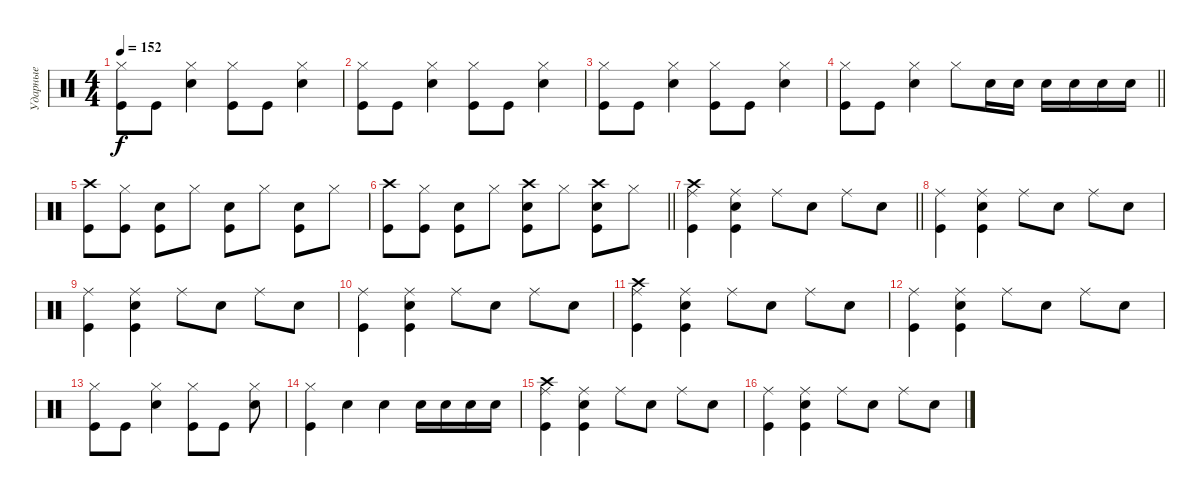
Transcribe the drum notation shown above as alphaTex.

\track ("Ударные" "Ударные") {instrument percussion}
\staff {score}
\articulation defaults
\ts (4 4)
\tempo 152
\clef neutral
\ks c
("Hi-Hat (closed)" "Kick (hit)").8{dy f} "Kick (hit)".8 ("Snare (hit) 2" "Hi-Hat (closed)").4 ("Hi-Hat (closed)" "Kick (hit)").8 "Kick (hit)".8 ("Snare (hit) 2" "Hi-Hat (closed)").4 |
("Hi-Hat (closed)" "Kick (hit)").8 "Kick (hit)".8 ("Snare (hit) 2" "Hi-Hat (closed)").4 ("Hi-Hat (closed)" "Kick (hit)").8 "Kick (hit)".8 ("Snare (hit) 2" "Hi-Hat (closed)").4 |
("Hi-Hat (closed)" "Kick (hit)").8 "Kick (hit)".8 ("Snare (hit) 2" "Hi-Hat (closed)").4 ("Hi-Hat (closed)" "Kick (hit)").8 "Kick (hit)".8 ("Snare (hit) 2" "Hi-Hat (closed)").4 |
\barLineRight lightlight
("Hi-Hat (closed)" "Kick (hit)").8 "Kick (hit)".8 ("Snare (hit) 2" "Hi-Hat (closed)").4 "Hi-Hat (closed)".8 "Snare (hit) 2".16 "Snare (hit) 2".16 "Snare (hit) 2".16 "Snare (hit) 2".16 "Snare (hit) 2".16 "Snare (hit) 2".16 |
("Crash high (hit)" "Kick (hit)").8 ("Hi-Hat (closed)" "Kick (hit)").8 ("Snare (hit) 2" "Kick (hit)").8 "Hi-Hat (closed)".8 ("Snare (hit) 2" "Kick (hit)").8 "Hi-Hat (closed)".8 ("Snare (hit) 2" "Kick (hit)").8 "Hi-Hat (closed)".8 |
\barLineRight lightlight
("Crash high (hit)" "Kick (hit)").8 ("Hi-Hat (closed)" "Kick (hit)").8 ("Snare (hit) 2" "Kick (hit)").8 "Hi-Hat (closed)".8 ("Snare (hit) 2" "Kick (hit)" "Crash high (hit)").8 "Hi-Hat (closed)".8 ("Snare (hit) 2" "Kick (hit)" "Crash high (hit)").8 "Hi-Hat (closed)".8 |
\barLineRight lightlight
("Crash high (hit)" "Ride (middle)" "Kick (hit)").4 ("Kick (hit)" "Ride (middle)" "Snare (hit) 2").4 "Ride (middle)".8 "Snare (hit) 2".8 "Ride (middle)".8 "Snare (hit) 2".8 |
("Ride (middle)" "Kick (hit)").4 ("Kick (hit)" "Ride (middle)" "Snare (hit) 2").4 "Ride (middle)".8 "Snare (hit) 2".8 "Ride (middle)".8 "Snare (hit) 2".8 |
("Ride (middle)" "Kick (hit)").4 ("Kick (hit)" "Ride (middle)" "Snare (hit) 2").4 "Ride (middle)".8 "Snare (hit) 2".8 "Ride (middle)".8 "Snare (hit) 2".8 |
("Ride (middle)" "Kick (hit)").4 ("Kick (hit)" "Ride (middle)" "Snare (hit) 2").4 "Ride (middle)".8 "Snare (hit) 2".8 "Ride (middle)".8 "Snare (hit) 2".8 |
("Crash high (hit)" "Ride (middle)" "Kick (hit)").4 ("Kick (hit)" "Ride (middle)" "Snare (hit) 2").4 "Ride (middle)".8 "Snare (hit) 2".8 "Ride (middle)".8 "Snare (hit) 2".8 |
("Ride (middle)" "Kick (hit)").4 ("Kick (hit)" "Ride (middle)" "Snare (hit) 2").4 "Ride (middle)".8 "Snare (hit) 2".8 "Ride (middle)".8 "Snare (hit) 2".8 |
("Kick (hit)" "Hi-Hat (closed)").8 "Kick (hit)".8 ("Snare (hit) 2" "Hi-Hat (closed)").4 ("Hi-Hat (closed)" "Kick (hit)").8 "Kick (hit)".8 ("Snare (hit) 2" "Hi-Hat (closed)").8 |
("Kick (hit)" "Hi-Hat (closed)").4 "Snare (hit) 2".4 "Snare (hit) 2".4 "Snare (hit) 2".16 "Snare (hit) 2".16 "Snare (hit) 2".16 "Snare (hit) 2".16 |
("Crash high (hit)" "Ride (middle)" "Kick (hit)").4 ("Kick (hit)" "Ride (middle)" "Snare (hit) 2").4 "Ride (middle)".8 "Snare (hit) 2".8 "Ride (middle)".8 "Snare (hit) 2".8 |
("Ride (middle)" "Kick (hit)").4 ("Kick (hit)" "Ride (middle)" "Snare (hit) 2").4 "Ride (middle)".8 "Snare (hit) 2".8 "Ride (middle)".8 "Snare (hit) 2".8
